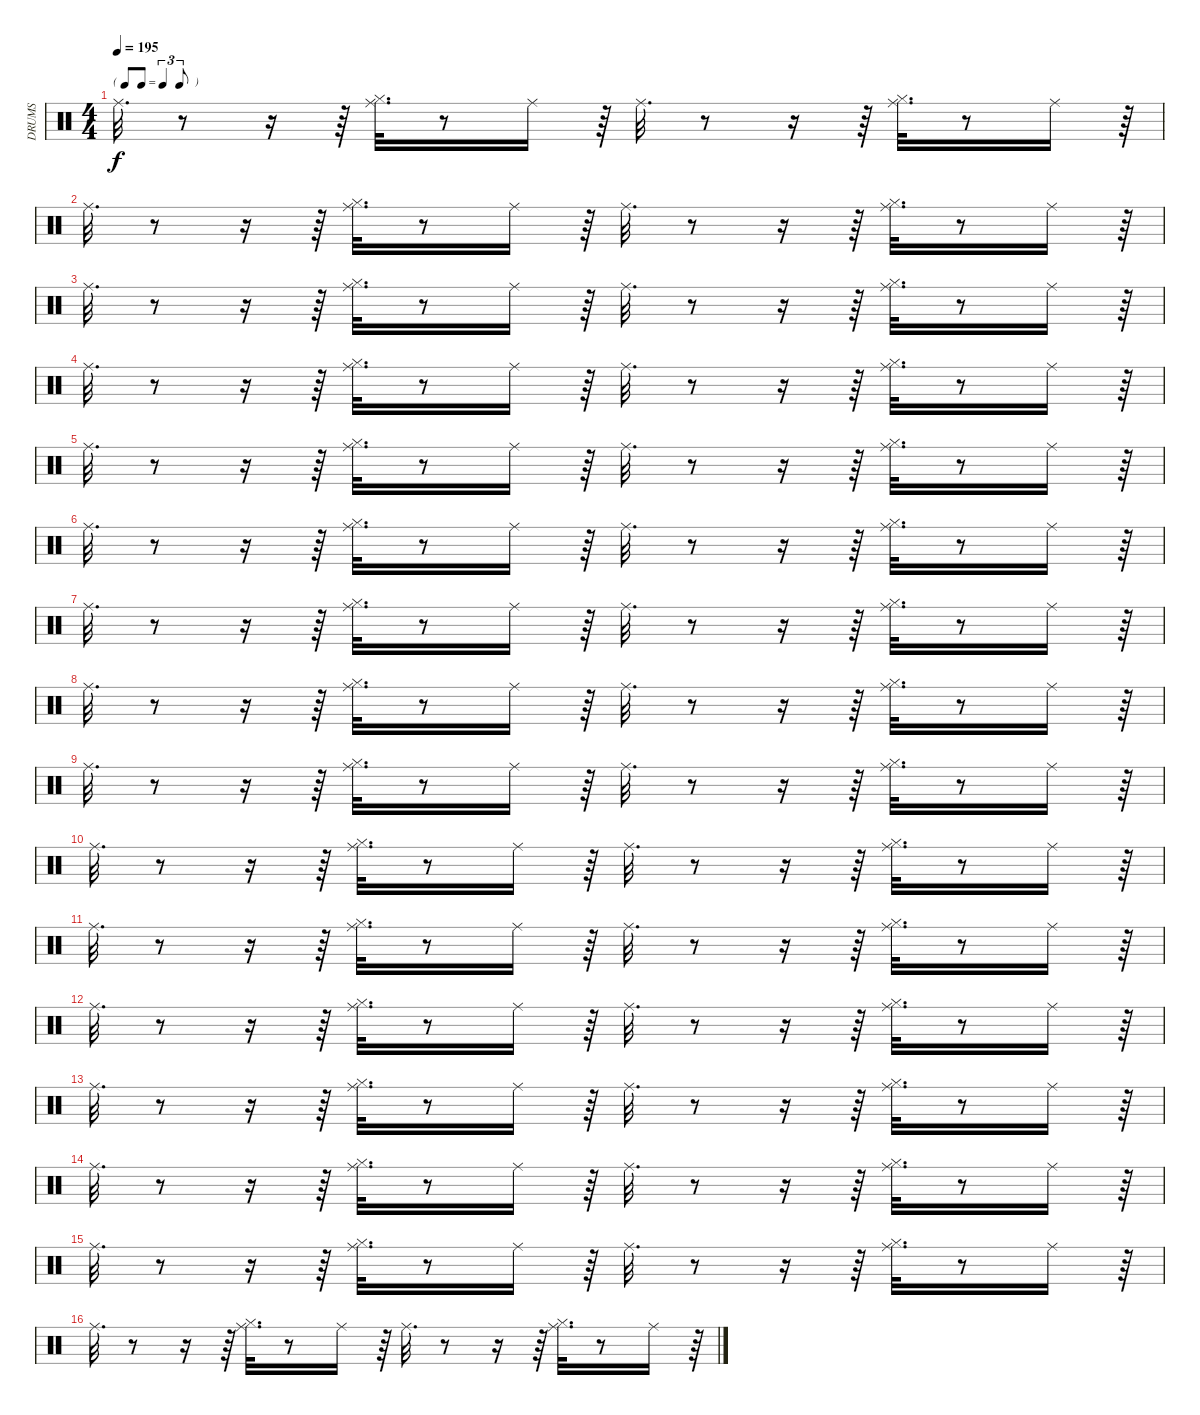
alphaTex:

\track ("DRUMS" "DRUMS") {instrument percussion}
\staff {score}
\articulation defaults
\ts (4 4)
\tf triplet8th
\tempo 195
\clef neutral
\ks c "Ride (middle)".32{d dy f}
r.8 r.16 r.64 ("Hi-Hat (closed)" "Ride (middle)").32{d} r.8 "Ride (middle)".16 r.64 "Ride (middle)".32{d} r.8 r.16 r.64 ("Hi-Hat (closed)" "Ride (middle)").32{d} r.8 "Ride (middle)".16 r.64 |
"Ride (middle)".32{d} r.8 r.16 r.64 ("Hi-Hat (closed)" "Ride (middle)").32{d} r.8 "Ride (middle)".16 r.64 "Ride (middle)".32{d} r.8 r.16 r.64 ("Hi-Hat (closed)" "Ride (middle)").32{d} r.8 "Ride (middle)".16 r.64 |
"Ride (middle)".32{d} r.8 r.16 r.64 ("Hi-Hat (closed)" "Ride (middle)").32{d} r.8 "Ride (middle)".16 r.64 "Ride (middle)".32{d} r.8 r.16 r.64 ("Hi-Hat (closed)" "Ride (middle)").32{d} r.8 "Ride (middle)".16 r.64 |
"Ride (middle)".32{d} r.8 r.16 r.64 ("Hi-Hat (closed)" "Ride (middle)").32{d} r.8 "Ride (middle)".16 r.64 "Ride (middle)".32{d} r.8 r.16 r.64 ("Hi-Hat (closed)" "Ride (middle)").32{d} r.8 "Ride (middle)".16 r.64 |
"Ride (middle)".32{d} r.8 r.16 r.64 ("Hi-Hat (closed)" "Ride (middle)").32{d} r.8 "Ride (middle)".16 r.64 "Ride (middle)".32{d} r.8 r.16 r.64 ("Hi-Hat (closed)" "Ride (middle)").32{d} r.8 "Ride (middle)".16 r.64 |
"Ride (middle)".32{d} r.8 r.16 r.64 ("Hi-Hat (closed)" "Ride (middle)").32{d} r.8 "Ride (middle)".16 r.64 "Ride (middle)".32{d} r.8 r.16 r.64 ("Hi-Hat (closed)" "Ride (middle)").32{d} r.8 "Ride (middle)".16 r.64 |
"Ride (middle)".32{d} r.8 r.16 r.64 ("Hi-Hat (closed)" "Ride (middle)").32{d} r.8 "Ride (middle)".16 r.64 "Ride (middle)".32{d} r.8 r.16 r.64 ("Hi-Hat (closed)" "Ride (middle)").32{d} r.8 "Ride (middle)".16 r.64 |
"Ride (middle)".32{d} r.8 r.16 r.64 ("Hi-Hat (closed)" "Ride (middle)").32{d} r.8 "Ride (middle)".16 r.64 "Ride (middle)".32{d} r.8 r.16 r.64 ("Hi-Hat (closed)" "Ride (middle)").32{d} r.8 "Ride (middle)".16 r.64 |
"Ride (middle)".32{d} r.8 r.16 r.64 ("Hi-Hat (closed)" "Ride (middle)").32{d} r.8 "Ride (middle)".16 r.64 "Ride (middle)".32{d} r.8 r.16 r.64 ("Hi-Hat (closed)" "Ride (middle)").32{d} r.8 "Ride (middle)".16 r.64 |
"Ride (middle)".32{d} r.8 r.16 r.64 ("Hi-Hat (closed)" "Ride (middle)").32{d} r.8 "Ride (middle)".16 r.64 "Ride (middle)".32{d} r.8 r.16 r.64 ("Hi-Hat (closed)" "Ride (middle)").32{d} r.8 "Ride (middle)".16 r.64 |
"Ride (middle)".32{d} r.8 r.16 r.64 ("Hi-Hat (closed)" "Ride (middle)").32{d} r.8 "Ride (middle)".16 r.64 "Ride (middle)".32{d} r.8 r.16 r.64 ("Hi-Hat (closed)" "Ride (middle)").32{d} r.8 "Ride (middle)".16 r.64 |
"Ride (middle)".32{d} r.8 r.16 r.64 ("Hi-Hat (closed)" "Ride (middle)").32{d} r.8 "Ride (middle)".16 r.64 "Ride (middle)".32{d} r.8 r.16 r.64 ("Hi-Hat (closed)" "Ride (middle)").32{d} r.8 "Ride (middle)".16 r.64 |
"Ride (middle)".32{d} r.8 r.16 r.64 ("Hi-Hat (closed)" "Ride (middle)").32{d} r.8 "Ride (middle)".16 r.64 "Ride (middle)".32{d} r.8 r.16 r.64 ("Hi-Hat (closed)" "Ride (middle)").32{d} r.8 "Ride (middle)".16 r.64 |
"Ride (middle)".32{d} r.8 r.16 r.64 ("Hi-Hat (closed)" "Ride (middle)").32{d} r.8 "Ride (middle)".16 r.64 "Ride (middle)".32{d} r.8 r.16 r.64 ("Hi-Hat (closed)" "Ride (middle)").32{d} r.8 "Ride (middle)".16 r.64 |
"Ride (middle)".32{d} r.8 r.16 r.64 ("Hi-Hat (closed)" "Ride (middle)").32{d} r.8 "Ride (middle)".16 r.64 "Ride (middle)".32{d} r.8 r.16 r.64 ("Hi-Hat (closed)" "Ride (middle)").32{d} r.8 "Ride (middle)".16 r.64 |
"Ride (middle)".32{d} r.8 r.16 r.64 ("Hi-Hat (closed)" "Ride (middle)").32{d} r.8 "Ride (middle)".16 r.64 "Ride (middle)".32{d} r.8 r.16 r.64 ("Hi-Hat (closed)" "Ride (middle)").32{d} r.8 "Ride (middle)".16 r.64
